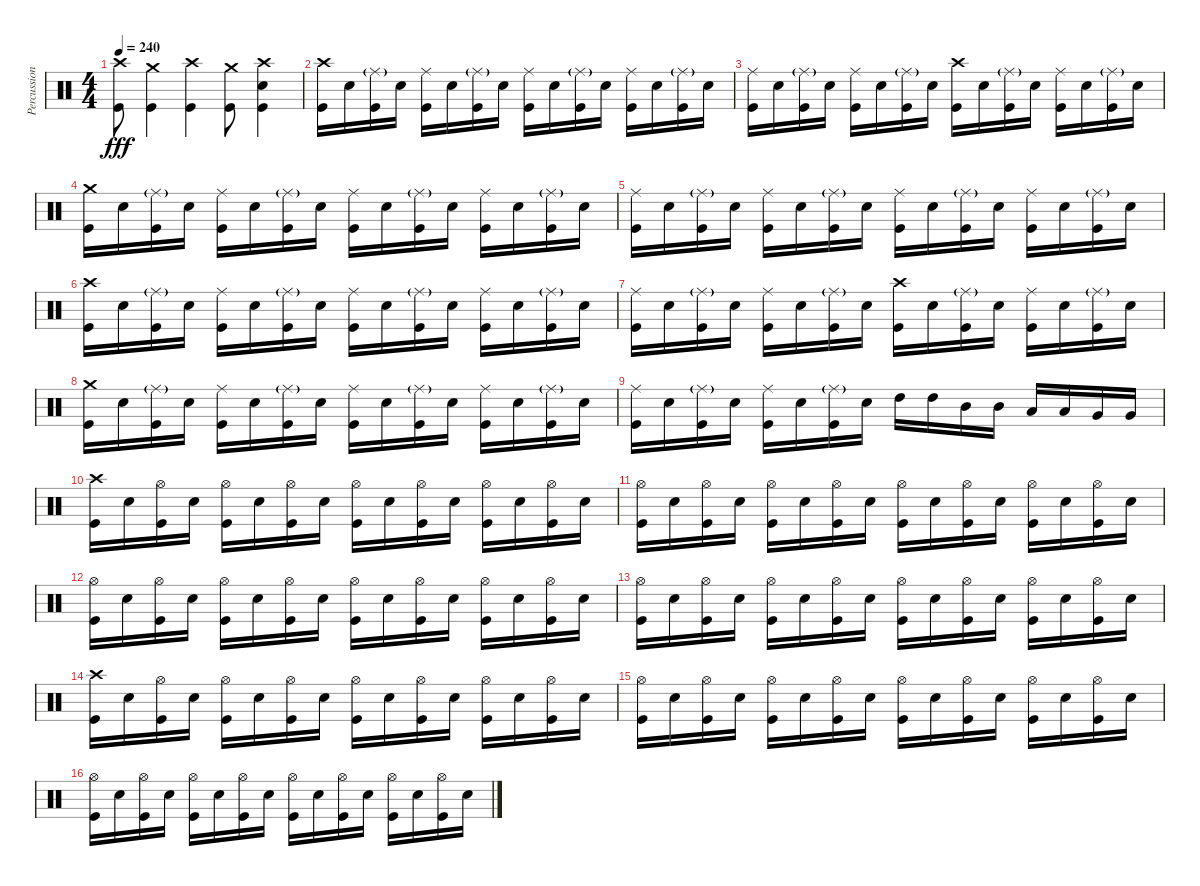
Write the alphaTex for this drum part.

\track ("Percussion" "Percussion") {instrument percussion}
\staff {score}
\articulation defaults
\ts (4 4)
\tempo 240
\clef neutral
\ks c
("Crash high (hit)" "Kick (hit)").8{dy fff} ("Kick (hit)" "Crash medium (hit)").4 ("Kick (hit)" "Crash high (hit)").4 ("Kick (hit)" "Crash medium (hit)").8 ("Kick (hit)" "Crash high (hit)" "Snare (hit) 2").4 |
("Crash high (hit)" "Kick (hit)").16 "Snare (hit) 2".16 ("Ride (middle)"{g} "Kick (hit)").16 "Snare (hit) 2".16 ("Ride (middle)" "Kick (hit)").16 "Snare (hit) 2".16 ("Ride (middle)"{g} "Kick (hit)").16 "Snare (hit) 2".16 ("Ride (middle)" "Kick (hit)").16 "Snare (hit) 2".16 ("Ride (middle)"{g} "Kick (hit)").16 "Snare (hit) 2".16 ("Ride (middle)" "Kick (hit)").16 "Snare (hit) 2".16 ("Ride (middle)"{g} "Kick (hit)").16 "Snare (hit) 2".16 |
("Ride (middle)" "Kick (hit)").16 "Snare (hit) 2".16 ("Ride (middle)"{g} "Kick (hit)").16 "Snare (hit) 2".16 ("Ride (middle)" "Kick (hit)").16 "Snare (hit) 2".16 ("Ride (middle)"{g} "Kick (hit)").16 "Snare (hit) 2".16 ("Crash high (hit)" "Kick (hit)").16 "Snare (hit) 2".16 ("Ride (middle)"{g} "Kick (hit)").16 "Snare (hit) 2".16 ("Ride (middle)" "Kick (hit)").16 "Snare (hit) 2".16 ("Ride (middle)"{g} "Kick (hit)").16 "Snare (hit) 2".16 |
("Crash medium (hit)" "Kick (hit)").16 "Snare (hit) 2".16 ("Ride (middle)"{g} "Kick (hit)").16 "Snare (hit) 2".16 ("Ride (middle)" "Kick (hit)").16 "Snare (hit) 2".16 ("Ride (middle)"{g} "Kick (hit)").16 "Snare (hit) 2".16 ("Ride (middle)" "Kick (hit)").16 "Snare (hit) 2".16 ("Ride (middle)"{g} "Kick (hit)").16 "Snare (hit) 2".16 ("Ride (middle)" "Kick (hit)").16 "Snare (hit) 2".16 ("Ride (middle)"{g} "Kick (hit)").16 "Snare (hit) 2".16 |
("Ride (middle)" "Kick (hit)").16 "Snare (hit) 2".16 ("Ride (middle)"{g} "Kick (hit)").16 "Snare (hit) 2".16 ("Ride (middle)" "Kick (hit)").16 "Snare (hit) 2".16 ("Ride (middle)"{g} "Kick (hit)").16 "Snare (hit) 2".16 ("Ride (middle)" "Kick (hit)").16 "Snare (hit) 2".16 ("Ride (middle)"{g} "Kick (hit)").16 "Snare (hit) 2".16 ("Ride (middle)" "Kick (hit)").16 "Snare (hit) 2".16 ("Ride (middle)"{g} "Kick (hit)").16 "Snare (hit) 2".16 |
("Crash high (hit)" "Kick (hit)").16 "Snare (hit) 2".16 ("Ride (middle)"{g} "Kick (hit)").16 "Snare (hit) 2".16 ("Ride (middle)" "Kick (hit)").16 "Snare (hit) 2".16 ("Ride (middle)"{g} "Kick (hit)").16 "Snare (hit) 2".16 ("Ride (middle)" "Kick (hit)").16 "Snare (hit) 2".16 ("Ride (middle)"{g} "Kick (hit)").16 "Snare (hit) 2".16 ("Ride (middle)" "Kick (hit)").16 "Snare (hit) 2".16 ("Ride (middle)"{g} "Kick (hit)").16 "Snare (hit) 2".16 |
("Ride (middle)" "Kick (hit)").16 "Snare (hit) 2".16 ("Ride (middle)"{g} "Kick (hit)").16 "Snare (hit) 2".16 ("Ride (middle)" "Kick (hit)").16 "Snare (hit) 2".16 ("Ride (middle)"{g} "Kick (hit)").16 "Snare (hit) 2".16 ("Crash high (hit)" "Kick (hit)").16 "Snare (hit) 2".16 ("Ride (middle)"{g} "Kick (hit)").16 "Snare (hit) 2".16 ("Ride (middle)" "Kick (hit)").16 "Snare (hit) 2".16 ("Ride (middle)"{g} "Kick (hit)").16 "Snare (hit) 2".16 |
("Crash medium (hit)" "Kick (hit)").16 "Snare (hit) 2".16 ("Ride (middle)"{g} "Kick (hit)").16 "Snare (hit) 2".16 ("Ride (middle)" "Kick (hit)").16 "Snare (hit) 2".16 ("Ride (middle)"{g} "Kick (hit)").16 "Snare (hit) 2".16 ("Ride (middle)" "Kick (hit)").16 "Snare (hit) 2".16 ("Ride (middle)"{g} "Kick (hit)").16 "Snare (hit) 2".16 ("Ride (middle)" "Kick (hit)").16 "Snare (hit) 2".16 ("Ride (middle)"{g} "Kick (hit)").16 "Snare (hit) 2".16 |
("Ride (middle)" "Kick (hit)").16 "Snare (hit) 2".16 ("Ride (middle)"{g} "Kick (hit)").16 "Snare (hit) 2".16 ("Ride (middle)" "Kick (hit)").16 "Snare (hit) 2".16 ("Ride (middle)"{g} "Kick (hit)").16 "Snare (hit) 2".16 "High Tom (hit)".16 "High Tom (hit)".16 "Mid Tom (hit)".16 "Mid Tom (hit)".16 "Low Tom (hit)".16 "Low Tom (hit)".16 "Very Low Tom (hit)".16 "Very Low Tom (hit)".16 |
("Crash high (hit)" "Kick (hit)").16 "Snare (hit) 2".16 ("Hi-Hat (open)" "Kick (hit)").16 "Snare (hit) 2".16 ("Hi-Hat (open)" "Kick (hit)").16 "Snare (hit) 2".16 ("Hi-Hat (open)" "Kick (hit)").16 "Snare (hit) 2".16 ("Hi-Hat (open)" "Kick (hit)").16 "Snare (hit) 2".16 ("Hi-Hat (open)" "Kick (hit)").16 "Snare (hit) 2".16 ("Hi-Hat (open)" "Kick (hit)").16 "Snare (hit) 2".16 ("Hi-Hat (open)" "Kick (hit)").16 "Snare (hit) 2".16 |
("Hi-Hat (open)" "Kick (hit)").16 "Snare (hit) 2".16 ("Hi-Hat (open)" "Kick (hit)").16 "Snare (hit) 2".16 ("Hi-Hat (open)" "Kick (hit)").16 "Snare (hit) 2".16 ("Hi-Hat (open)" "Kick (hit)").16 "Snare (hit) 2".16 ("Hi-Hat (open)" "Kick (hit)").16 "Snare (hit) 2".16 ("Hi-Hat (open)" "Kick (hit)").16 "Snare (hit) 2".16 ("Hi-Hat (open)" "Kick (hit)").16 "Snare (hit) 2".16 ("Hi-Hat (open)" "Kick (hit)").16 "Snare (hit) 2".16 |
("Hi-Hat (open)" "Kick (hit)").16 "Snare (hit) 2".16 ("Hi-Hat (open)" "Kick (hit)").16 "Snare (hit) 2".16 ("Hi-Hat (open)" "Kick (hit)").16 "Snare (hit) 2".16 ("Hi-Hat (open)" "Kick (hit)").16 "Snare (hit) 2".16 ("Hi-Hat (open)" "Kick (hit)").16 "Snare (hit) 2".16 ("Hi-Hat (open)" "Kick (hit)").16 "Snare (hit) 2".16 ("Hi-Hat (open)" "Kick (hit)").16 "Snare (hit) 2".16 ("Hi-Hat (open)" "Kick (hit)").16 "Snare (hit) 2".16 |
("Hi-Hat (open)" "Kick (hit)").16 "Snare (hit) 2".16 ("Hi-Hat (open)" "Kick (hit)").16 "Snare (hit) 2".16 ("Hi-Hat (open)" "Kick (hit)").16 "Snare (hit) 2".16 ("Hi-Hat (open)" "Kick (hit)").16 "Snare (hit) 2".16 ("Hi-Hat (open)" "Kick (hit)").16 "Snare (hit) 2".16 ("Hi-Hat (open)" "Kick (hit)").16 "Snare (hit) 2".16 ("Hi-Hat (open)" "Kick (hit)").16 "Snare (hit) 2".16 ("Hi-Hat (open)" "Kick (hit)").16 "Snare (hit) 2".16 |
("Crash high (hit)" "Kick (hit)").16 "Snare (hit) 2".16 ("Hi-Hat (open)" "Kick (hit)").16 "Snare (hit) 2".16 ("Hi-Hat (open)" "Kick (hit)").16 "Snare (hit) 2".16 ("Hi-Hat (open)" "Kick (hit)").16 "Snare (hit) 2".16 ("Hi-Hat (open)" "Kick (hit)").16 "Snare (hit) 2".16 ("Hi-Hat (open)" "Kick (hit)").16 "Snare (hit) 2".16 ("Hi-Hat (open)" "Kick (hit)").16 "Snare (hit) 2".16 ("Hi-Hat (open)" "Kick (hit)").16 "Snare (hit) 2".16 |
("Hi-Hat (open)" "Kick (hit)").16 "Snare (hit) 2".16 ("Hi-Hat (open)" "Kick (hit)").16 "Snare (hit) 2".16 ("Hi-Hat (open)" "Kick (hit)").16 "Snare (hit) 2".16 ("Hi-Hat (open)" "Kick (hit)").16 "Snare (hit) 2".16 ("Hi-Hat (open)" "Kick (hit)").16 "Snare (hit) 2".16 ("Hi-Hat (open)" "Kick (hit)").16 "Snare (hit) 2".16 ("Hi-Hat (open)" "Kick (hit)").16 "Snare (hit) 2".16 ("Hi-Hat (open)" "Kick (hit)").16 "Snare (hit) 2".16 |
("Hi-Hat (open)" "Kick (hit)").16 "Snare (hit) 2".16 ("Hi-Hat (open)" "Kick (hit)").16 "Snare (hit) 2".16 ("Hi-Hat (open)" "Kick (hit)").16 "Snare (hit) 2".16 ("Hi-Hat (open)" "Kick (hit)").16 "Snare (hit) 2".16 ("Hi-Hat (open)" "Kick (hit)").16 "Snare (hit) 2".16 ("Hi-Hat (open)" "Kick (hit)").16 "Snare (hit) 2".16 ("Hi-Hat (open)" "Kick (hit)").16 "Snare (hit) 2".16 ("Hi-Hat (open)" "Kick (hit)").16 "Snare (hit) 2".16
